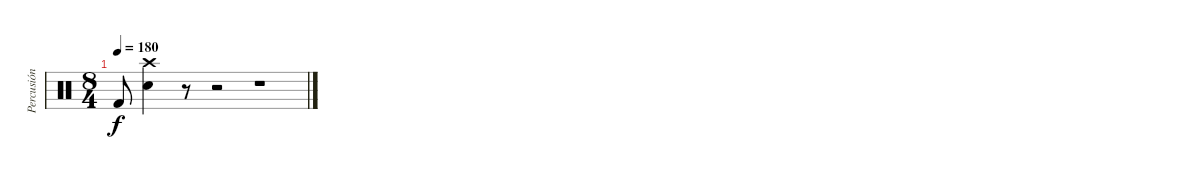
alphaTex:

\track ("Percusión" "Percusión") {instrument percussion}
\staff {score}
\articulation defaults
\ts (8 4)
\tempo 180
\clef neutral
\ks c "Kick (hit) 2".8{dy f}
("Snare (hit) 2" "Crash high (hit)").4 r.8 r.2 r.1
